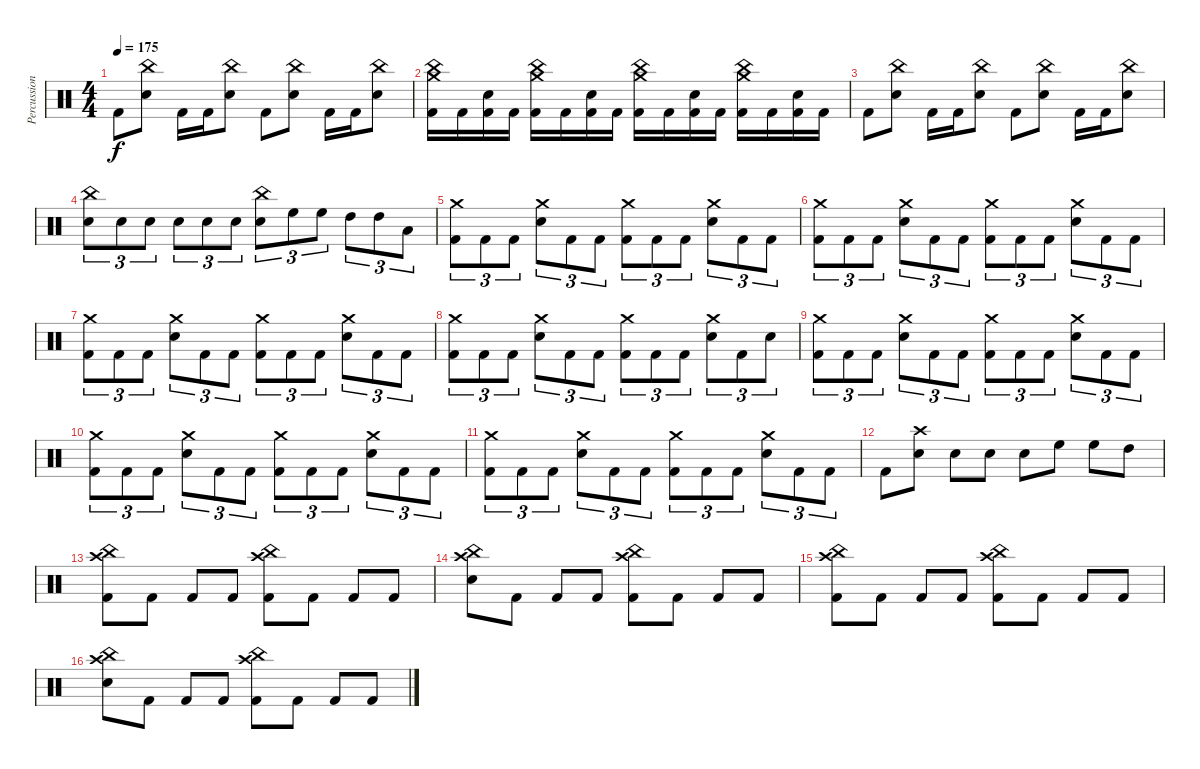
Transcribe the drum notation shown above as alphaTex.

\track ("Percussion" "Percussion") {instrument percussion}
\staff {score}
\articulation defaults
\ts (4 4)
\tempo 175
\clef neutral
\ks c "Kick (hit) 2".8{dy f}
("China (hit)" "Electric Snare (hit)").8 "Kick (hit) 2".16 "Kick (hit) 2".16 ("China (hit)" "Electric Snare (hit)").8 "Kick (hit) 2".8 ("China (hit)" "Electric Snare (hit)").8 "Kick (hit) 2".16 "Kick (hit) 2".16 ("China (hit)" "Electric Snare (hit)").8 |
("Crash medium (hit)" "China (hit)" "Kick (hit) 2").16 "Kick (hit) 2".16 ("Electric Snare (hit)" "Kick (hit) 2").16 "Kick (hit) 2".16 ("Crash medium (hit)" "China (hit)" "Kick (hit) 2").16 "Kick (hit) 2".16 ("Electric Snare (hit)" "Kick (hit) 2").16 "Kick (hit) 2".16 ("Crash medium (hit)" "China (hit)" "Kick (hit) 2").16 "Kick (hit) 2".16 ("Electric Snare (hit)" "Kick (hit) 2").16 "Kick (hit) 2".16 ("Crash medium (hit)" "China (hit)" "Kick (hit) 2").16 "Kick (hit) 2".16 ("Electric Snare (hit)" "Kick (hit) 2").16 "Kick (hit) 2".16 |
"Kick (hit) 2".8 ("China (hit)" "Electric Snare (hit)").8 "Kick (hit) 2".16 "Kick (hit) 2".16 ("China (hit)" "Electric Snare (hit)").8 "Kick (hit) 2".8 ("China (hit)" "Electric Snare (hit)").8 "Kick (hit) 2".16 "Kick (hit) 2".16 ("China (hit)" "Electric Snare (hit)").8 |
("China (hit)" "Electric Snare (hit)").8{tu (3 2)} "Electric Snare (hit)".8{tu (3 2)} "Electric Snare (hit)".8{tu (3 2)} "Electric Snare (hit)".8{tu (3 2)} "Electric Snare (hit)".8{tu (3 2)} "Electric Snare (hit)".8{tu (3 2)} ("China (hit)" "Electric Snare (hit)").8{tu (3 2)} "High Floor Tom (hit)".8{tu (3 2)} "High Floor Tom (hit)".8{tu (3 2)} "High Tom (hit)".8{tu (3 2)} "High Tom (hit)".8{tu (3 2)} "Low Floor Tom (hit)".8{tu (3 2)} |
("Crash medium (hit)" "Kick (hit) 2").8{tu (3 2)} "Kick (hit) 2".8{tu (3 2)} "Kick (hit) 2".8{tu (3 2)} ("Crash medium (hit)" "Electric Snare (hit)").8{tu (3 2)} "Kick (hit) 2".8{tu (3 2)} "Kick (hit) 2".8{tu (3 2)} ("Crash medium (hit)" "Kick (hit) 2").8{tu (3 2)} "Kick (hit) 2".8{tu (3 2)} "Kick (hit) 2".8{tu (3 2)} ("Crash medium (hit)" "Electric Snare (hit)").8{tu (3 2)} "Kick (hit) 2".8{tu (3 2)} "Kick (hit) 2".8{tu (3 2)} |
("Crash medium (hit)" "Kick (hit) 2").8{tu (3 2)} "Kick (hit) 2".8{tu (3 2)} "Kick (hit) 2".8{tu (3 2)} ("Crash medium (hit)" "Electric Snare (hit)").8{tu (3 2)} "Kick (hit) 2".8{tu (3 2)} "Kick (hit) 2".8{tu (3 2)} ("Crash medium (hit)" "Kick (hit) 2").8{tu (3 2)} "Kick (hit) 2".8{tu (3 2)} "Kick (hit) 2".8{tu (3 2)} ("Crash medium (hit)" "Electric Snare (hit)").8{tu (3 2)} "Kick (hit) 2".8{tu (3 2)} "Kick (hit) 2".8{tu (3 2)} |
("Crash medium (hit)" "Kick (hit) 2").8{tu (3 2)} "Kick (hit) 2".8{tu (3 2)} "Kick (hit) 2".8{tu (3 2)} ("Crash medium (hit)" "Electric Snare (hit)").8{tu (3 2)} "Kick (hit) 2".8{tu (3 2)} "Kick (hit) 2".8{tu (3 2)} ("Crash medium (hit)" "Kick (hit) 2").8{tu (3 2)} "Kick (hit) 2".8{tu (3 2)} "Kick (hit) 2".8{tu (3 2)} ("Crash medium (hit)" "Electric Snare (hit)").8{tu (3 2)} "Kick (hit) 2".8{tu (3 2)} "Kick (hit) 2".8{tu (3 2)} |
("Crash medium (hit)" "Kick (hit) 2").8{tu (3 2)} "Kick (hit) 2".8{tu (3 2)} "Kick (hit) 2".8{tu (3 2)} ("Crash medium (hit)" "Electric Snare (hit)").8{tu (3 2)} "Kick (hit) 2".8{tu (3 2)} "Kick (hit) 2".8{tu (3 2)} ("Crash medium (hit)" "Kick (hit) 2").8{tu (3 2)} "Kick (hit) 2".8{tu (3 2)} "Kick (hit) 2".8{tu (3 2)} ("Crash medium (hit)" "Electric Snare (hit)").8{tu (3 2)} "Kick (hit) 2".8{tu (3 2)} "Electric Snare (hit)".8{tu (3 2)} |
("Crash medium (hit)" "Kick (hit) 2").8{tu (3 2)} "Kick (hit) 2".8{tu (3 2)} "Kick (hit) 2".8{tu (3 2)} ("Crash medium (hit)" "Electric Snare (hit)").8{tu (3 2)} "Kick (hit) 2".8{tu (3 2)} "Kick (hit) 2".8{tu (3 2)} ("Crash medium (hit)" "Kick (hit) 2").8{tu (3 2)} "Kick (hit) 2".8{tu (3 2)} "Kick (hit) 2".8{tu (3 2)} ("Crash medium (hit)" "Electric Snare (hit)").8{tu (3 2)} "Kick (hit) 2".8{tu (3 2)} "Kick (hit) 2".8{tu (3 2)} |
("Crash medium (hit)" "Kick (hit) 2").8{tu (3 2)} "Kick (hit) 2".8{tu (3 2)} "Kick (hit) 2".8{tu (3 2)} ("Crash medium (hit)" "Electric Snare (hit)").8{tu (3 2)} "Kick (hit) 2".8{tu (3 2)} "Kick (hit) 2".8{tu (3 2)} ("Crash medium (hit)" "Kick (hit) 2").8{tu (3 2)} "Kick (hit) 2".8{tu (3 2)} "Kick (hit) 2".8{tu (3 2)} ("Crash medium (hit)" "Electric Snare (hit)").8{tu (3 2)} "Kick (hit) 2".8{tu (3 2)} "Kick (hit) 2".8{tu (3 2)} |
("Crash medium (hit)" "Kick (hit) 2").8{tu (3 2)} "Kick (hit) 2".8{tu (3 2)} "Kick (hit) 2".8{tu (3 2)} ("Crash medium (hit)" "Electric Snare (hit)").8{tu (3 2)} "Kick (hit) 2".8{tu (3 2)} "Kick (hit) 2".8{tu (3 2)} ("Crash medium (hit)" "Kick (hit) 2").8{tu (3 2)} "Kick (hit) 2".8{tu (3 2)} "Kick (hit) 2".8{tu (3 2)} ("Crash medium (hit)" "Electric Snare (hit)").8{tu (3 2)} "Kick (hit) 2".8{tu (3 2)} "Kick (hit) 2".8{tu (3 2)} |
"Kick (hit) 2".8 ("Crash high (hit)" "Electric Snare (hit)").8 "Electric Snare (hit)".8 "Electric Snare (hit)".8 "Electric Snare (hit)".8 "High Floor Tom (hit)".8 "High Floor Tom (hit)".8 "High Tom (hit)".8 |
("Crash high (hit)" "China (hit)" "Kick (hit) 2").8 "Kick (hit) 2".8 "Kick (hit) 2".8 "Kick (hit) 2".8 ("Crash high (hit)" "China (hit)" "Kick (hit) 2").8 "Kick (hit) 2".8 "Kick (hit) 2".8 "Kick (hit) 2".8 |
("Crash high (hit)" "China (hit)" "Electric Snare (hit)").8 "Kick (hit) 2".8 "Kick (hit) 2".8 "Kick (hit) 2".8 ("Crash high (hit)" "China (hit)" "Kick (hit) 2").8 "Kick (hit) 2".8 "Kick (hit) 2".8 "Kick (hit) 2".8 |
("Crash high (hit)" "China (hit)" "Kick (hit) 2").8 "Kick (hit) 2".8 "Kick (hit) 2".8 "Kick (hit) 2".8 ("Crash high (hit)" "China (hit)" "Kick (hit) 2").8 "Kick (hit) 2".8 "Kick (hit) 2".8 "Kick (hit) 2".8 |
("Crash high (hit)" "China (hit)" "Electric Snare (hit)").8 "Kick (hit) 2".8 "Kick (hit) 2".8 "Kick (hit) 2".8 ("Crash high (hit)" "China (hit)" "Kick (hit) 2").8 "Kick (hit) 2".8 "Kick (hit) 2".8 "Kick (hit) 2".8
